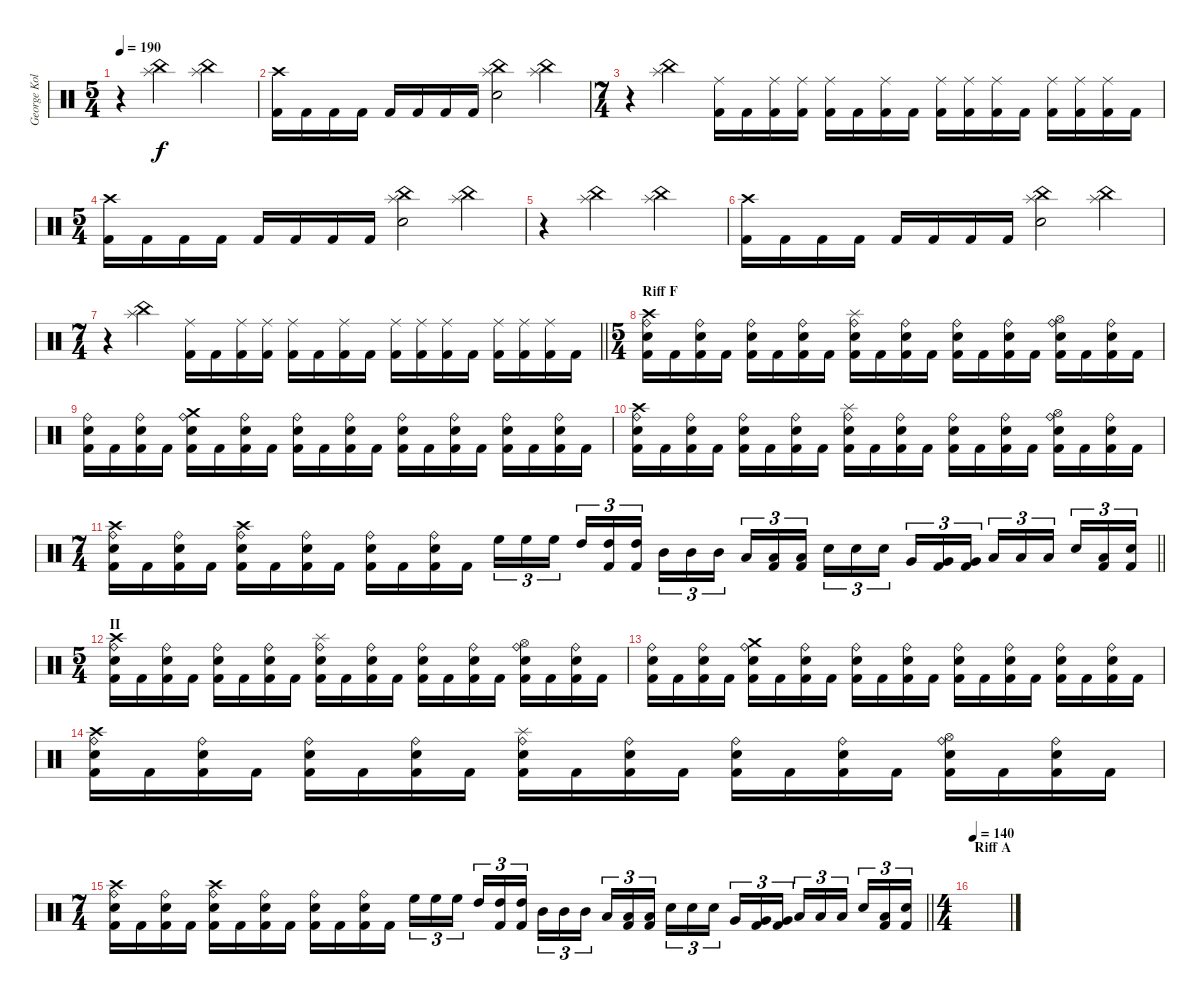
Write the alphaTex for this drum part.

\track ("George Kollias" "George Kol") {instrument percussion}
\staff {score}
\articulation defaults
\ts (5 4)
\tempo 190
\clef neutral
\ks c
r.4{dy f} ("China (hit)" "Splash (hit)").2 ("China (hit)" "Splash (hit)").2 |
("Crash high (hit)" "Kick (hit) 2").16 "Kick (hit) 2".16 "Kick (hit) 2".16 "Kick (hit) 2".16 "Kick (hit) 2".16 "Kick (hit) 2".16 "Kick (hit) 2".16 "Kick (hit) 2".16 ("China (hit)" "Splash (hit)" "Electric Snare (hit)").2 ("China (hit)" "Splash (hit)").4 |
\ts (7 4)
r.4 ("China (hit)" "Splash (hit)").2 ("Ride (middle)" "Kick (hit) 2").16 "Kick (hit) 2".16 ("Ride (middle)" "Kick (hit) 2").16 ("Ride (middle)" "Kick (hit) 2").16 ("Ride (middle)" "Kick (hit) 2").16 "Kick (hit) 2".16 ("Ride (middle)" "Kick (hit) 2").16 "Kick (hit) 2".16 ("Ride (middle)" "Kick (hit) 2").16 ("Ride (middle)" "Kick (hit) 2").16 ("Ride (middle)" "Kick (hit) 2").16 "Kick (hit) 2".16 ("Ride (middle)" "Kick (hit) 2").16 ("Ride (middle)" "Kick (hit) 2").16 ("Ride (middle)" "Kick (hit) 2").16 "Kick (hit) 2".16 |
\ts (5 4)
("Crash high (hit)" "Kick (hit) 2").16 "Kick (hit) 2".16 "Kick (hit) 2".16 "Kick (hit) 2".16 "Kick (hit) 2".16 "Kick (hit) 2".16 "Kick (hit) 2".16 "Kick (hit) 2".16 ("China (hit)" "Splash (hit)" "Electric Snare (hit)").2 ("China (hit)" "Splash (hit)").4 |
r.4 ("China (hit)" "Splash (hit)").2 ("China (hit)" "Splash (hit)").2 |
("Crash high (hit)" "Kick (hit) 2").16 "Kick (hit) 2".16 "Kick (hit) 2".16 "Kick (hit) 2".16 "Kick (hit) 2".16 "Kick (hit) 2".16 "Kick (hit) 2".16 "Kick (hit) 2".16 ("China (hit)" "Splash (hit)" "Electric Snare (hit)").2 ("China (hit)" "Splash (hit)").4 |
\ts (7 4)
\barLineRight lightlight
r.4 ("China (hit)" "Splash (hit)").2 ("Ride (middle)" "Kick (hit) 2").16 "Kick (hit) 2".16 ("Ride (middle)" "Kick (hit) 2").16 ("Ride (middle)" "Kick (hit) 2").16 ("Ride (middle)" "Kick (hit) 2").16 "Kick (hit) 2".16 ("Ride (middle)" "Kick (hit) 2").16 "Kick (hit) 2".16 ("Ride (middle)" "Kick (hit) 2").16 ("Ride (middle)" "Kick (hit) 2").16 ("Ride (middle)" "Kick (hit) 2").16 "Kick (hit) 2".16 ("Ride (middle)" "Kick (hit) 2").16 ("Ride (middle)" "Kick (hit) 2").16 ("Ride (middle)" "Kick (hit) 2").16 "Kick (hit) 2".16 |
\ts (5 4)
\section ("" "Riff F")
("Crash high (hit)" "Ride (bell)" "Electric Snare (hit)" "Kick (hit) 2").16 "Kick (hit) 2".16 ("Ride (bell)" "Electric Snare (hit)" "Kick (hit) 2").16 "Kick (hit) 2".16 ("Ride (bell)" "Electric Snare (hit)" "Kick (hit) 2").16 "Kick (hit) 2".16 ("Ride (bell)" "Electric Snare (hit)" "Kick (hit) 2").16 "Kick (hit) 2".16 ("Splash (hit)" "Ride (bell)" "Electric Snare (hit)" "Kick (hit) 2").16 "Kick (hit) 2".16 ("Ride (bell)" "Electric Snare (hit)" "Kick (hit) 2").16 "Kick (hit) 2".16 ("Ride (bell)" "Electric Snare (hit)" "Kick (hit) 2").16 "Kick (hit) 2".16 ("Ride (bell)" "Electric Snare (hit)" "Kick (hit) 2").16 "Kick (hit) 2".16 ("Hi-Hat (open)" "Ride (bell)" "Electric Snare (hit)" "Kick (hit) 2").16 "Kick (hit) 2".16 ("Ride (bell)" "Electric Snare (hit)" "Kick (hit) 2").16 "Kick (hit) 2".16 |
("Ride (bell)" "Electric Snare (hit)" "Kick (hit) 2").16 "Kick (hit) 2".16 ("Ride (bell)" "Electric Snare (hit)" "Kick (hit) 2").16 "Kick (hit) 2".16 ("Crash medium (hit)" "Ride (bell)" "Electric Snare (hit)" "Kick (hit) 2").16 "Kick (hit) 2".16 ("Ride (bell)" "Electric Snare (hit)" "Kick (hit) 2").16 "Kick (hit) 2".16 ("Ride (bell)" "Electric Snare (hit)" "Kick (hit) 2").16 "Kick (hit) 2".16 ("Ride (bell)" "Electric Snare (hit)" "Kick (hit) 2").16 "Kick (hit) 2".16 ("Ride (bell)" "Electric Snare (hit)" "Kick (hit) 2").16 "Kick (hit) 2".16 ("Ride (bell)" "Electric Snare (hit)" "Kick (hit) 2").16 "Kick (hit) 2".16 ("Ride (bell)" "Electric Snare (hit)" "Kick (hit) 2").16 "Kick (hit) 2".16 ("Ride (bell)" "Electric Snare (hit)" "Kick (hit) 2").16 "Kick (hit) 2".16 |
("Crash high (hit)" "Ride (bell)" "Electric Snare (hit)" "Kick (hit) 2").16 "Kick (hit) 2".16 ("Ride (bell)" "Electric Snare (hit)" "Kick (hit) 2").16 "Kick (hit) 2".16 ("Ride (bell)" "Electric Snare (hit)" "Kick (hit) 2").16 "Kick (hit) 2".16 ("Ride (bell)" "Electric Snare (hit)" "Kick (hit) 2").16 "Kick (hit) 2".16 ("Splash (hit)" "Ride (bell)" "Electric Snare (hit)" "Kick (hit) 2").16 "Kick (hit) 2".16 ("Ride (bell)" "Electric Snare (hit)" "Kick (hit) 2").16 "Kick (hit) 2".16 ("Ride (bell)" "Electric Snare (hit)" "Kick (hit) 2").16 "Kick (hit) 2".16 ("Ride (bell)" "Electric Snare (hit)" "Kick (hit) 2").16 "Kick (hit) 2".16 ("Hi-Hat (open)" "Ride (bell)" "Electric Snare (hit)" "Kick (hit) 2").16 "Kick (hit) 2".16 ("Ride (bell)" "Electric Snare (hit)" "Kick (hit) 2").16 "Kick (hit) 2".16 |
\ts (7 4)
\barLineRight lightlight
("Crash high (hit)" "Ride (bell)" "Electric Snare (hit)" "Kick (hit) 2").16 "Kick (hit) 2".16 ("Ride (bell)" "Electric Snare (hit)" "Kick (hit) 2").16 "Kick (hit) 2".16 ("Crash high (hit)" "Ride (bell)" "Electric Snare (hit)" "Kick (hit) 2").16 "Kick (hit) 2".16 ("Ride (bell)" "Electric Snare (hit)" "Kick (hit) 2").16 "Kick (hit) 2".16 ("Ride (bell)" "Electric Snare (hit)" "Kick (hit) 2").16 "Kick (hit) 2".16 ("Ride (bell)" "Electric Snare (hit)" "Kick (hit) 2").16 "Kick (hit) 2".16 "High Floor Tom (hit)".16{tu (3 2)} "High Floor Tom (hit)".16{tu (3 2)} "High Floor Tom (hit)".16{tu (3 2) beam splitsecondary} "High Tom (hit)".16{tu (3 2)} ("High Tom (hit)" "Kick (hit) 2").16{tu (3 2)} ("High Tom (hit)" "Kick (hit) 2").16{tu (3 2)} "Mid Tom (hit)".16{tu (3 2)} "Mid Tom (hit)".16{tu (3 2)} "Mid Tom (hit)".16{tu (3 2) beam splitsecondary} "Low Tom (hit)".16{tu (3 2)} ("Low Tom (hit)" "Kick (hit) 2").16{tu (3 2)} ("Low Tom (hit)" "Kick (hit) 2").16{tu (3 2)} "Electric Snare (hit)".16{tu (3 2)} "Electric Snare (hit)".16{tu (3 2)} "Electric Snare (hit)".16{tu (3 2) beam splitsecondary} "Very Low Tom (hit)".16{tu (3 2)} ("Very Low Tom (hit)" "Kick (hit) 2").16{tu (3 2)} ("Very Low Tom (hit)" "Kick (hit) 2").16{tu (3 2)} "Low Tom (hit)".16{tu (3 2)} "Low Tom (hit)".16{tu (3 2)} "Low Tom (hit)".16{tu (3 2) beam splitsecondary} "Electric Snare (hit)".16{tu (3 2)} ("Low Tom (hit)" "Kick (hit) 2").16{tu (3 2)} ("Electric Snare (hit)" "Kick (hit) 2").16{tu (3 2)} |
\ts (5 4)
\section ("" "II")
("Crash high (hit)" "Ride (bell)" "Electric Snare (hit)" "Kick (hit) 2").16 "Kick (hit) 2".16 ("Ride (bell)" "Electric Snare (hit)" "Kick (hit) 2").16 "Kick (hit) 2".16 ("Ride (bell)" "Electric Snare (hit)" "Kick (hit) 2").16 "Kick (hit) 2".16 ("Ride (bell)" "Electric Snare (hit)" "Kick (hit) 2").16 "Kick (hit) 2".16 ("Splash (hit)" "Ride (bell)" "Electric Snare (hit)" "Kick (hit) 2").16 "Kick (hit) 2".16 ("Ride (bell)" "Electric Snare (hit)" "Kick (hit) 2").16 "Kick (hit) 2".16 ("Ride (bell)" "Electric Snare (hit)" "Kick (hit) 2").16 "Kick (hit) 2".16 ("Ride (bell)" "Electric Snare (hit)" "Kick (hit) 2").16 "Kick (hit) 2".16 ("Hi-Hat (open)" "Ride (bell)" "Electric Snare (hit)" "Kick (hit) 2").16 "Kick (hit) 2".16 ("Ride (bell)" "Electric Snare (hit)" "Kick (hit) 2").16 "Kick (hit) 2".16 |
("Ride (bell)" "Electric Snare (hit)" "Kick (hit) 2").16 "Kick (hit) 2".16 ("Ride (bell)" "Electric Snare (hit)" "Kick (hit) 2").16 "Kick (hit) 2".16 ("Crash medium (hit)" "Ride (bell)" "Electric Snare (hit)" "Kick (hit) 2").16 "Kick (hit) 2".16 ("Ride (bell)" "Electric Snare (hit)" "Kick (hit) 2").16 "Kick (hit) 2".16 ("Ride (bell)" "Electric Snare (hit)" "Kick (hit) 2").16 "Kick (hit) 2".16 ("Ride (bell)" "Electric Snare (hit)" "Kick (hit) 2").16 "Kick (hit) 2".16 ("Ride (bell)" "Electric Snare (hit)" "Kick (hit) 2").16 "Kick (hit) 2".16 ("Ride (bell)" "Electric Snare (hit)" "Kick (hit) 2").16 "Kick (hit) 2".16 ("Ride (bell)" "Electric Snare (hit)" "Kick (hit) 2").16 "Kick (hit) 2".16 ("Ride (bell)" "Electric Snare (hit)" "Kick (hit) 2").16 "Kick (hit) 2".16 |
("Crash high (hit)" "Ride (bell)" "Electric Snare (hit)" "Kick (hit) 2").16 "Kick (hit) 2".16 ("Ride (bell)" "Electric Snare (hit)" "Kick (hit) 2").16 "Kick (hit) 2".16 ("Ride (bell)" "Electric Snare (hit)" "Kick (hit) 2").16 "Kick (hit) 2".16 ("Ride (bell)" "Electric Snare (hit)" "Kick (hit) 2").16 "Kick (hit) 2".16 ("Splash (hit)" "Ride (bell)" "Electric Snare (hit)" "Kick (hit) 2").16 "Kick (hit) 2".16 ("Ride (bell)" "Electric Snare (hit)" "Kick (hit) 2").16 "Kick (hit) 2".16 ("Ride (bell)" "Electric Snare (hit)" "Kick (hit) 2").16 "Kick (hit) 2".16 ("Ride (bell)" "Electric Snare (hit)" "Kick (hit) 2").16 "Kick (hit) 2".16 ("Hi-Hat (open)" "Ride (bell)" "Electric Snare (hit)" "Kick (hit) 2").16 "Kick (hit) 2".16 ("Ride (bell)" "Electric Snare (hit)" "Kick (hit) 2").16 "Kick (hit) 2".16 |
\ts (7 4)
\barLineRight lightlight
("Crash high (hit)" "Ride (bell)" "Electric Snare (hit)" "Kick (hit) 2").16 "Kick (hit) 2".16 ("Ride (bell)" "Electric Snare (hit)" "Kick (hit) 2").16 "Kick (hit) 2".16 ("Crash high (hit)" "Ride (bell)" "Electric Snare (hit)" "Kick (hit) 2").16 "Kick (hit) 2".16 ("Ride (bell)" "Electric Snare (hit)" "Kick (hit) 2").16 "Kick (hit) 2".16 ("Ride (bell)" "Electric Snare (hit)" "Kick (hit) 2").16 "Kick (hit) 2".16 ("Ride (bell)" "Electric Snare (hit)" "Kick (hit) 2").16 "Kick (hit) 2".16 "High Floor Tom (hit)".16{tu (3 2)} "High Floor Tom (hit)".16{tu (3 2)} "High Floor Tom (hit)".16{tu (3 2) beam splitsecondary} "High Tom (hit)".16{tu (3 2)} ("High Tom (hit)" "Kick (hit) 2").16{tu (3 2)} ("High Tom (hit)" "Kick (hit) 2").16{tu (3 2)} "Mid Tom (hit)".16{tu (3 2)} "Mid Tom (hit)".16{tu (3 2)} "Mid Tom (hit)".16{tu (3 2) beam splitsecondary} "Low Tom (hit)".16{tu (3 2)} ("Low Tom (hit)" "Kick (hit) 2").16{tu (3 2)} ("Low Tom (hit)" "Kick (hit) 2").16{tu (3 2)} "Electric Snare (hit)".16{tu (3 2)} "Electric Snare (hit)".16{tu (3 2)} "Electric Snare (hit)".16{tu (3 2) beam splitsecondary} "Very Low Tom (hit)".16{tu (3 2)} ("Very Low Tom (hit)" "Kick (hit) 2").16{tu (3 2)} ("Very Low Tom (hit)" "Kick (hit) 2").16{tu (3 2)} "Low Tom (hit)".16{tu (3 2)} "Low Tom (hit)".16{tu (3 2)} "Low Tom (hit)".16{tu (3 2) beam splitsecondary} "Electric Snare (hit)".16{tu (3 2)} ("Low Tom (hit)" "Kick (hit) 2").16{tu (3 2)} ("Electric Snare (hit)" "Kick (hit) 2").16{tu (3 2)} |
\ts (4 4)
\section ("" "Riff A")
\tempo 140
